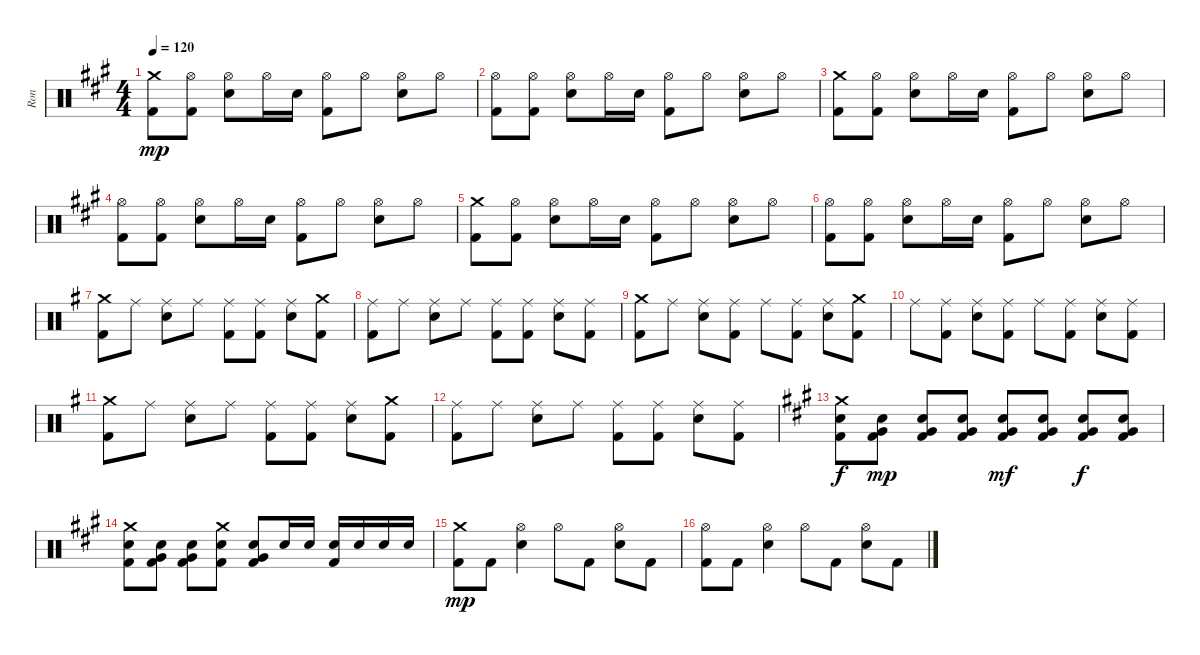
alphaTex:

\track ("Ron" "Ron") {instrument percussion}
\staff {score}
\articulation defaults
\ts (4 4)
\tempo 120
\clef neutral
\ks a
("Crash medium (hit)" "Kick (hit) 2").8{dy mp} ("Hi-Hat (open)" "Kick (hit) 2").8 ("Hi-Hat (open)" "Electric Snare (hit)").8 "Hi-Hat (open)".16 "Electric Snare (hit)".16 ("Hi-Hat (open)" "Kick (hit) 2").8 "Hi-Hat (open)".8 ("Hi-Hat (open)" "Electric Snare (hit)").8 "Hi-Hat (open)".8 |
("Hi-Hat (open)" "Kick (hit) 2").8 ("Hi-Hat (open)" "Kick (hit) 2").8 ("Hi-Hat (open)" "Electric Snare (hit)").8 "Hi-Hat (open)".16 "Electric Snare (hit)".16 ("Hi-Hat (open)" "Kick (hit) 2").8 "Hi-Hat (open)".8 ("Hi-Hat (open)" "Electric Snare (hit)").8 "Hi-Hat (open)".8 |
("Crash medium (hit)" "Kick (hit) 2").8 ("Hi-Hat (open)" "Kick (hit) 2").8 ("Hi-Hat (open)" "Electric Snare (hit)").8 "Hi-Hat (open)".16 "Electric Snare (hit)".16 ("Hi-Hat (open)" "Kick (hit) 2").8 "Hi-Hat (open)".8 ("Hi-Hat (open)" "Electric Snare (hit)").8 "Hi-Hat (open)".8 |
("Hi-Hat (open)" "Kick (hit) 2").8 ("Hi-Hat (open)" "Kick (hit) 2").8 ("Hi-Hat (open)" "Electric Snare (hit)").8 "Hi-Hat (open)".16 "Electric Snare (hit)".16 ("Hi-Hat (open)" "Kick (hit) 2").8 "Hi-Hat (open)".8 ("Hi-Hat (open)" "Electric Snare (hit)").8 "Hi-Hat (open)".8 |
("Crash medium (hit)" "Kick (hit) 2").8 ("Hi-Hat (open)" "Kick (hit) 2").8 ("Hi-Hat (open)" "Electric Snare (hit)").8 "Hi-Hat (open)".16 "Electric Snare (hit)".16 ("Hi-Hat (open)" "Kick (hit) 2").8 "Hi-Hat (open)".8 ("Hi-Hat (open)" "Electric Snare (hit)").8 "Hi-Hat (open)".8 |
("Hi-Hat (open)" "Kick (hit) 2").8 ("Hi-Hat (open)" "Kick (hit) 2").8 ("Hi-Hat (open)" "Electric Snare (hit)").8 "Hi-Hat (open)".16 "Electric Snare (hit)".16 ("Hi-Hat (open)" "Kick (hit) 2").8 "Hi-Hat (open)".8 ("Hi-Hat (open)" "Electric Snare (hit)").8 "Hi-Hat (open)".8 |
\ks g
("Crash medium (hit)" "Kick (hit) 2").8 "Ride (middle)".8 ("Ride (middle)" "Electric Snare (hit)").8 "Ride (middle)".8 ("Ride (middle)" "Kick (hit) 2").8 ("Ride (middle)" "Kick (hit) 2").8 ("Ride (middle)" "Electric Snare (hit)").8 ("Crash medium (hit)" "Kick (hit) 2").8 |
("Ride (middle)" "Kick (hit) 2").8 "Ride (middle)".8 ("Ride (middle)" "Electric Snare (hit)").8 "Ride (middle)".8 ("Ride (middle)" "Kick (hit) 2").8 ("Ride (middle)" "Kick (hit) 2").8 ("Ride (middle)" "Electric Snare (hit)").8 ("Ride (middle)" "Kick (hit) 2").8 |
("Crash medium (hit)" "Kick (hit) 2").8 "Ride (middle)".8 ("Ride (middle)" "Electric Snare (hit)").8 ("Ride (middle)" "Kick (hit) 2").8 "Ride (middle)".8 ("Ride (middle)" "Kick (hit) 2").8 ("Ride (middle)" "Electric Snare (hit)").8 ("Crash medium (hit)" "Kick (hit) 2").8 |
"Ride (middle)".8 ("Ride (middle)" "Kick (hit) 2").8 ("Ride (middle)" "Electric Snare (hit)").8 ("Ride (middle)" "Kick (hit) 2").8 "Ride (middle)".8 ("Ride (middle)" "Kick (hit) 2").8 ("Ride (middle)" "Electric Snare (hit)").8 ("Ride (middle)" "Kick (hit) 2").8 |
("Crash medium (hit)" "Kick (hit) 2").8 "Ride (middle)".8 ("Ride (middle)" "Electric Snare (hit)").8 "Ride (middle)".8 ("Ride (middle)" "Kick (hit) 2").8 ("Ride (middle)" "Kick (hit) 2").8 ("Ride (middle)" "Electric Snare (hit)").8 ("Crash medium (hit)" "Kick (hit) 2").8 |
("Ride (middle)" "Kick (hit) 2").8 "Ride (middle)".8 ("Ride (middle)" "Electric Snare (hit)").8 "Ride (middle)".8 ("Ride (middle)" "Kick (hit) 2").8 ("Ride (middle)" "Kick (hit) 2").8 ("Ride (middle)" "Electric Snare (hit)").8 ("Ride (middle)" "Kick (hit) 2").8 |
\ks a
("Crash medium (hit)" "Electric Snare (hit)" "Kick (hit) 2").8{dy f} ("Electric Snare (hit)" "Very Low Tom (hit)" "Kick (hit) 2").8{dy mp} ("Electric Snare (hit)" "Very Low Tom (hit)" "Kick (hit) 2").8 ("Electric Snare (hit)" "Very Low Tom (hit)" "Kick (hit) 2").8 ("Electric Snare (hit)" "Very Low Tom (hit)" "Kick (hit) 2").8{dy mf} ("Electric Snare (hit)" "Very Low Tom (hit)" "Kick (hit) 2").8 ("Electric Snare (hit)" "Very Low Tom (hit)" "Kick (hit) 2").8{dy f} ("Electric Snare (hit)" "Very Low Tom (hit)" "Kick (hit) 2").8 |
("Crash medium (hit)" "Electric Snare (hit)" "Kick (hit) 2").8 ("Electric Snare (hit)" "Very Low Tom (hit)" "Kick (hit) 2").8 ("Electric Snare (hit)" "Very Low Tom (hit)" "Kick (hit) 2").8 ("Crash medium (hit)" "Electric Snare (hit)" "Kick (hit) 2").8 ("Electric Snare (hit)" "Very Low Tom (hit)" "Kick (hit) 2").8 "Electric Snare (hit)".16 "Electric Snare (hit)".16 ("Electric Snare (hit)" "Kick (hit) 2").16 "Electric Snare (hit)".16 "Electric Snare (hit)".16 "Electric Snare (hit)".16 |
("Crash medium (hit)" "Kick (hit) 2").8{dy mp} "Kick (hit) 2".8 ("Hi-Hat (open)" "Electric Snare (hit)").4 "Hi-Hat (open)".8 "Kick (hit) 2".8 ("Hi-Hat (open)" "Electric Snare (hit)").8 "Kick (hit) 2".8 |
("Hi-Hat (open)" "Kick (hit) 2").8 "Kick (hit) 2".8 ("Hi-Hat (open)" "Electric Snare (hit)").4 "Hi-Hat (open)".8 "Kick (hit) 2".8 ("Hi-Hat (open)" "Electric Snare (hit)").8 "Kick (hit) 2".8
